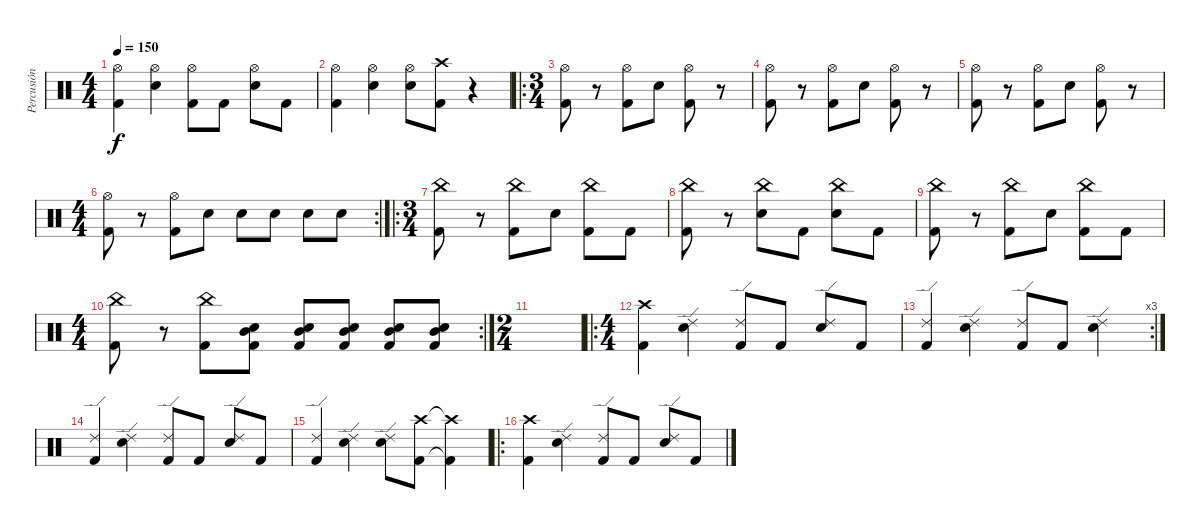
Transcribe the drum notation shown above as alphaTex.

\track ("Percusión" "Percusión") {instrument percussion}
\staff {score}
\articulation defaults
\ts (4 4)
\tempo 150
\clef neutral
\ks c
("Hi-Hat (open)" "Kick (hit) 2").4{dy f} ("Hi-Hat (open)" "Electric Snare (hit)").4 ("Hi-Hat (open)" "Kick (hit) 2").8 "Kick (hit) 2".8 ("Hi-Hat (open)" "Electric Snare (hit)").8 "Kick (hit) 2".8 |
("Hi-Hat (open)" "Kick (hit) 2").4 ("Hi-Hat (open)" "Electric Snare (hit)").4 ("Hi-Hat (open)" "Electric Snare (hit)").8 ("Crash high (hit)" "Kick (hit) 2").8 r.4 |
\ro
\ts (3 4)
("Hi-Hat (open)" "Kick (hit) 2").8 r.8 ("Hi-Hat (open)" "Kick (hit) 2").8 "Electric Snare (hit)".8 ("Hi-Hat (open)" "Kick (hit) 2").8 r.8 |
("Hi-Hat (open)" "Kick (hit) 2").8 r.8 ("Hi-Hat (open)" "Kick (hit) 2").8 "Electric Snare (hit)".8 ("Hi-Hat (open)" "Kick (hit) 2").8 r.8 |
("Hi-Hat (open)" "Kick (hit) 2").8 r.8 ("Hi-Hat (open)" "Kick (hit) 2").8 "Electric Snare (hit)".8 ("Hi-Hat (open)" "Kick (hit) 2").8 r.8 |
\rc 2
\ts (4 4)
("Hi-Hat (open)" "Kick (hit) 2").8 r.8 ("Hi-Hat (open)" "Kick (hit) 2").8 "Electric Snare (hit)".8 "Electric Snare (hit)".8 "Electric Snare (hit)".8 "Electric Snare (hit)".8 "Electric Snare (hit)".8 |
\ro
\ts (3 4)
("China (hit)" "Kick (hit) 2").8 r.8 ("China (hit)" "Kick (hit) 2").8 "Electric Snare (hit)".8 ("China (hit)" "Kick (hit) 2").8 "Kick (hit) 2".8 |
("China (hit)" "Kick (hit) 2").8 r.8 ("China (hit)" "Electric Snare (hit)").8 "Kick (hit) 2".8 ("China (hit)" "Electric Snare (hit)").8 "Kick (hit) 2".8 |
("China (hit)" "Kick (hit) 2").8 r.8 ("China (hit)" "Kick (hit) 2").8 "Electric Snare (hit)".8 ("China (hit)" "Kick (hit) 2").8 "Kick (hit) 2".8 |
\rc 2
\ts (4 4)
("China (hit)" "Kick (hit) 2").8 r.8 ("China (hit)" "Kick (hit) 2").8 ("Mid Tom (hit)" "Electric Snare (hit)" "Kick (hit) 2").8 ("Mid Tom (hit)" "Electric Snare (hit)" "Kick (hit) 2").8 ("Mid Tom (hit)" "Electric Snare (hit)" "Kick (hit) 2").8 ("Mid Tom (hit)" "Electric Snare (hit)" "Kick (hit) 2").8 ("Mid Tom (hit)" "Electric Snare (hit)" "Kick (hit) 2").8 |
\ts (2 4)
|
\ro
\ts (4 4)
("Crash high (hit)" "Kick (hit) 2").4 ("Ride (edge) 2" "Electric Snare (hit)").4 ("Ride (edge) 2" "Kick (hit) 2").8 "Kick (hit) 2".8 ("Ride (edge) 2" "Electric Snare (hit)").8 "Kick (hit) 2".8 |
\rc 3
("Ride (edge) 2" "Kick (hit) 2").4 ("Ride (edge) 2" "Electric Snare (hit)").4 ("Ride (edge) 2" "Kick (hit) 2").8 "Kick (hit) 2".8 ("Ride (edge) 2" "Electric Snare (hit)").4 |
("Ride (edge) 2" "Kick (hit) 2").4 ("Ride (edge) 2" "Electric Snare (hit)").4 ("Ride (edge) 2" "Kick (hit) 2").8 "Kick (hit) 2".8 ("Ride (edge) 2" "Electric Snare (hit)").8 "Kick (hit) 2".8 |
("Ride (edge) 2" "Kick (hit) 2").4 ("Ride (edge) 2" "Electric Snare (hit)").4 ("Ride (edge) 2" "Electric Snare (hit)").8 ("Crash high (hit)" "Kick (hit) 2").8 ("Crash high (hit)"{t} "Kick (hit) 2"{t}).4 |
\ro
("Crash high (hit)" "Kick (hit) 2").4 ("Ride (edge) 2" "Electric Snare (hit)").4 ("Ride (edge) 2" "Kick (hit) 2").8 "Kick (hit) 2".8 ("Ride (edge) 2" "Electric Snare (hit)").8 "Kick (hit) 2".8
